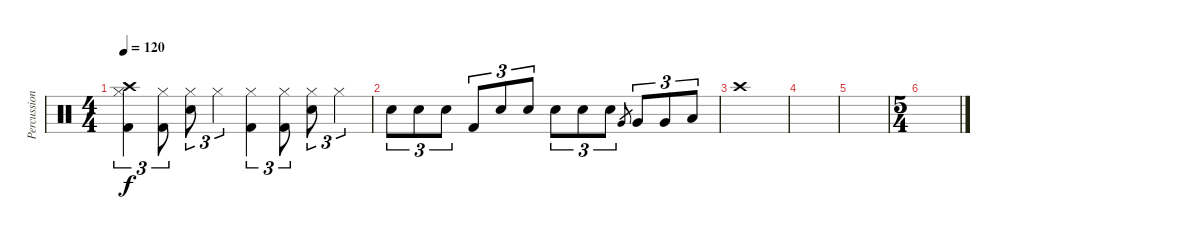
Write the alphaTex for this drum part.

\track ("Percussion" "Percussion") {instrument percussion}
\staff {score}
\articulation defaults
\ts (4 4)
\tempo 120
\clef neutral
\ks c
("Hi-Hat (closed)" "Crash high (hit)" "Kick (hit) 2").4{tu (3 2) dy f volume 3} ("Hi-Hat (closed)" "Kick (hit) 2").8{tu (3 2)} ("Hi-Hat (closed)" "Electric Snare (hit)").8{tu (3 2)} "Hi-Hat (closed)".4{tu (3 2)} ("Hi-Hat (closed)" "Kick (hit) 2").4{tu (3 2)} ("Hi-Hat (closed)" "Kick (hit) 2").8{tu (3 2)} ("Hi-Hat (closed)" "Electric Snare (hit)").8{tu (3 2)} "Hi-Hat (closed)".4{tu (3 2)} |
"Electric Snare (hit)".8{tu (3 2) volume 2} "Electric Snare (hit)".8{tu (3 2)} "Electric Snare (hit)".8{tu (3 2)} "Kick (hit) 2".8{tu (3 2)} "Electric Snare (hit)".8{tu (3 2)} "Electric Snare (hit)".8{tu (3 2)} "Electric Snare (hit)".8{tu (3 2)} "Electric Snare (hit)".8{tu (3 2)} "Electric Snare (hit)".8{tu (3 2)} "Very Low Tom (hit)".8{gr} "Very Low Tom (hit)".8{tu (3 2)} "Very Low Tom (hit)".8{tu (3 2)} "Low Tom (hit)".8{tu (3 2)} |
"Crash high (hit)".1{volume 2} |
|
|
\ts (5 4)
